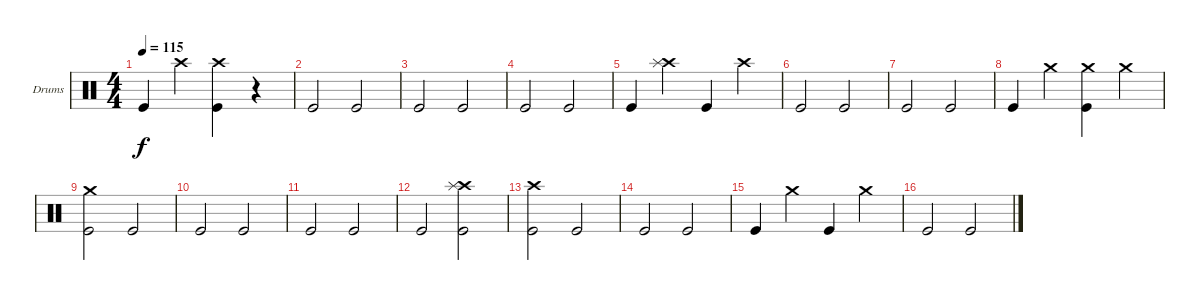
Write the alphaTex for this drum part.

\bracketExtendMode groupsimilarinstruments
\firstSystemTrackNameOrientation horizontal
\otherSystemsTrackNameOrientation horizontal
\track ("Drumkit" "Drums") {instrument percussion}
\staff {score}
\articulation defaults
\ts (4 4)
\tempo 115
\clef neutral
\scale
0.333333
\ks c "Kick (hit)".4{dy f} "Crash high (hit)".4
("Kick (hit)" "Crash high (hit)").4 r.4 |
\scale
0.333333 "Kick (hit)".2 "Kick (hit)".2 |
\scale
0.333333 "Kick (hit)".2 "Kick (hit)".2 |
\scale
0.333333 "Kick (hit)".2 "Kick (hit)".2 |
\scale
0.333333 "Kick (hit)".4 ("Crash high (hit)" "Splash (hit)").4 "Kick (hit)".4 "Crash high (hit)".4 |
\scale
0.333333 "Kick (hit)".2 "Kick (hit)".2 |
\scale
0.333333 "Kick (hit)".2 "Kick (hit)".2 |
\scale
0.333333 "Kick (hit)".4 "Crash medium (hit)".4 ("Kick (hit)" "Crash medium (hit)").4 "Crash medium (hit)".4 |
\scale
0.333333 ("Kick (hit)" "Crash medium (hit)").2 "Kick (hit)".2 |
\scale
0.333333 "Kick (hit)".2 "Kick (hit)".2 |
\scale
0.333333 "Kick (hit)".2 "Kick (hit)".2 |
\scale
0.333333 "Kick (hit)".2 ("Kick (hit)" "Crash high (hit)" "Splash (hit)").2 |
\scale
0.333333 ("Kick (hit)" "Crash high (hit)").2 "Kick (hit)".2 |
\scale
0.333333 "Kick (hit)".2 "Kick (hit)".2 |
\scale
0.333333 "Kick (hit)".4 "Crash medium (hit)".4 "Kick (hit)".4 "Crash medium (hit)".4 |
\scale
0.333333 "Kick (hit)".2 "Kick (hit)".2
